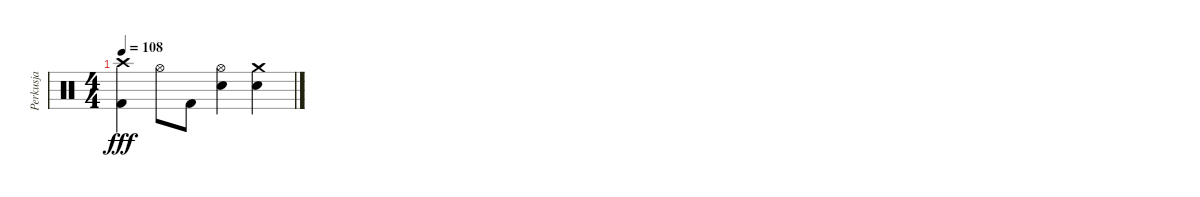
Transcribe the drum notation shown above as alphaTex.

\track ("Perkusja" "Perkusja") {instrument percussion}
\staff {score}
\articulation defaults
\ts (4 4)
\tempo 108
\clef neutral
\ks c
("Crash high (hit)" "Kick (hit) 2").4{dy fff} "Hi-Hat (open)".8 "Kick (hit) 2".8 ("Hi-Hat (open)" "Electric Snare (hit)").4 ("Crash medium (hit)" "Electric Snare (hit)").4
